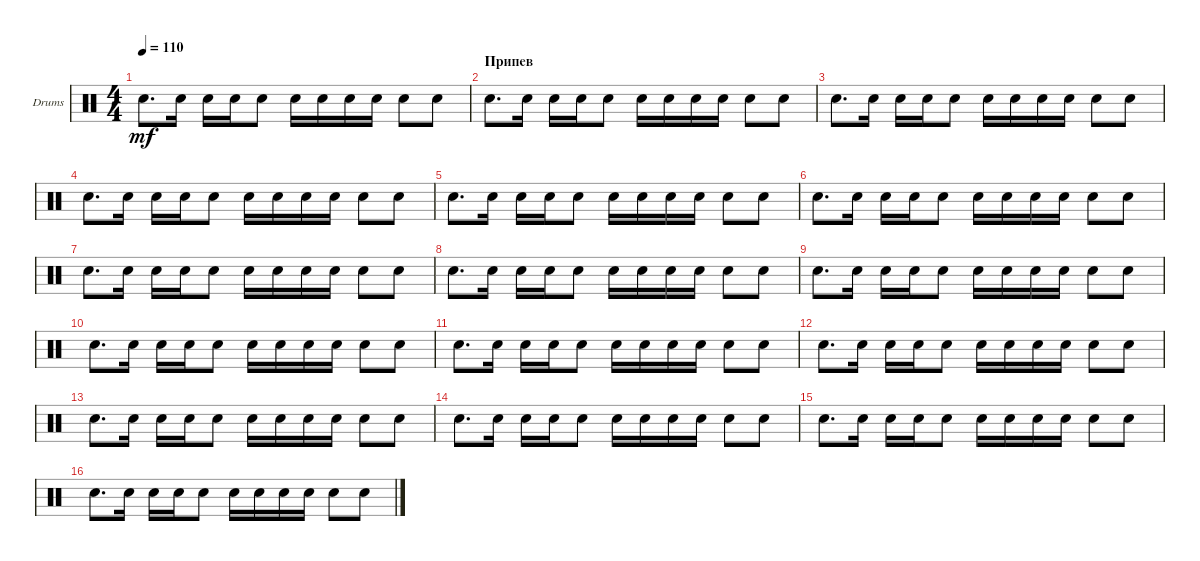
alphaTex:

\defaultSystemsLayout 4
\bracketExtendMode groupsimilarinstruments
\firstSystemTrackNameOrientation horizontal
\otherSystemsTrackNameOrientation horizontal
\track ("Drumkit" "Drums") {instrument percussion}
\staff {score}
\articulation defaults
\ts (4 4)
\tempo 110
\clef neutral
\ks c "Snare (hit) 2".8{d dy mf} "Snare (hit) 2".16 "Snare (hit) 2".16 "Snare (hit) 2".16 "Snare (hit) 2".8 "Snare (hit) 2".16 "Snare (hit) 2".16 "Snare (hit) 2".16 "Snare (hit) 2".16 "Snare (hit) 2".8 "Snare (hit) 2".8
|
\section ("" "Припев")
"Snare (hit) 2".8{d} "Snare (hit) 2".16 "Snare (hit) 2".16 "Snare (hit) 2".16 "Snare (hit) 2".8 "Snare (hit) 2".16 "Snare (hit) 2".16 "Snare (hit) 2".16 "Snare (hit) 2".16 "Snare (hit) 2".8 "Snare (hit) 2".8 |
"Snare (hit) 2".8{d} "Snare (hit) 2".16 "Snare (hit) 2".16 "Snare (hit) 2".16 "Snare (hit) 2".8 "Snare (hit) 2".16 "Snare (hit) 2".16 "Snare (hit) 2".16 "Snare (hit) 2".16 "Snare (hit) 2".8 "Snare (hit) 2".8 |
"Snare (hit) 2".8{d} "Snare (hit) 2".16 "Snare (hit) 2".16 "Snare (hit) 2".16 "Snare (hit) 2".8 "Snare (hit) 2".16 "Snare (hit) 2".16 "Snare (hit) 2".16 "Snare (hit) 2".16 "Snare (hit) 2".8 "Snare (hit) 2".8 |
"Snare (hit) 2".8{d} "Snare (hit) 2".16 "Snare (hit) 2".16 "Snare (hit) 2".16 "Snare (hit) 2".8 "Snare (hit) 2".16 "Snare (hit) 2".16 "Snare (hit) 2".16 "Snare (hit) 2".16 "Snare (hit) 2".8 "Snare (hit) 2".8 |
"Snare (hit) 2".8{d} "Snare (hit) 2".16 "Snare (hit) 2".16 "Snare (hit) 2".16 "Snare (hit) 2".8 "Snare (hit) 2".16 "Snare (hit) 2".16 "Snare (hit) 2".16 "Snare (hit) 2".16 "Snare (hit) 2".8 "Snare (hit) 2".8 |
"Snare (hit) 2".8{d} "Snare (hit) 2".16 "Snare (hit) 2".16 "Snare (hit) 2".16 "Snare (hit) 2".8 "Snare (hit) 2".16 "Snare (hit) 2".16 "Snare (hit) 2".16 "Snare (hit) 2".16 "Snare (hit) 2".8 "Snare (hit) 2".8 |
"Snare (hit) 2".8{d} "Snare (hit) 2".16 "Snare (hit) 2".16 "Snare (hit) 2".16 "Snare (hit) 2".8 "Snare (hit) 2".16 "Snare (hit) 2".16 "Snare (hit) 2".16 "Snare (hit) 2".16 "Snare (hit) 2".8 "Snare (hit) 2".8 |
"Snare (hit) 2".8{d} "Snare (hit) 2".16 "Snare (hit) 2".16 "Snare (hit) 2".16 "Snare (hit) 2".8 "Snare (hit) 2".16 "Snare (hit) 2".16 "Snare (hit) 2".16 "Snare (hit) 2".16 "Snare (hit) 2".8 "Snare (hit) 2".8 |
"Snare (hit) 2".8{d} "Snare (hit) 2".16 "Snare (hit) 2".16 "Snare (hit) 2".16 "Snare (hit) 2".8 "Snare (hit) 2".16 "Snare (hit) 2".16 "Snare (hit) 2".16 "Snare (hit) 2".16 "Snare (hit) 2".8 "Snare (hit) 2".8 |
"Snare (hit) 2".8{d} "Snare (hit) 2".16 "Snare (hit) 2".16 "Snare (hit) 2".16 "Snare (hit) 2".8 "Snare (hit) 2".16 "Snare (hit) 2".16 "Snare (hit) 2".16 "Snare (hit) 2".16 "Snare (hit) 2".8 "Snare (hit) 2".8 |
"Snare (hit) 2".8{d} "Snare (hit) 2".16 "Snare (hit) 2".16 "Snare (hit) 2".16 "Snare (hit) 2".8 "Snare (hit) 2".16 "Snare (hit) 2".16 "Snare (hit) 2".16 "Snare (hit) 2".16 "Snare (hit) 2".8 "Snare (hit) 2".8 |
"Snare (hit) 2".8{d} "Snare (hit) 2".16 "Snare (hit) 2".16 "Snare (hit) 2".16 "Snare (hit) 2".8 "Snare (hit) 2".16 "Snare (hit) 2".16 "Snare (hit) 2".16 "Snare (hit) 2".16 "Snare (hit) 2".8 "Snare (hit) 2".8 |
"Snare (hit) 2".8{d} "Snare (hit) 2".16 "Snare (hit) 2".16 "Snare (hit) 2".16 "Snare (hit) 2".8 "Snare (hit) 2".16 "Snare (hit) 2".16 "Snare (hit) 2".16 "Snare (hit) 2".16 "Snare (hit) 2".8 "Snare (hit) 2".8 |
"Snare (hit) 2".8{d} "Snare (hit) 2".16 "Snare (hit) 2".16 "Snare (hit) 2".16 "Snare (hit) 2".8 "Snare (hit) 2".16 "Snare (hit) 2".16 "Snare (hit) 2".16 "Snare (hit) 2".16 "Snare (hit) 2".8 "Snare (hit) 2".8 |
"Snare (hit) 2".8{d} "Snare (hit) 2".16 "Snare (hit) 2".16 "Snare (hit) 2".16 "Snare (hit) 2".8 "Snare (hit) 2".16 "Snare (hit) 2".16 "Snare (hit) 2".16 "Snare (hit) 2".16 "Snare (hit) 2".8 "Snare (hit) 2".8
